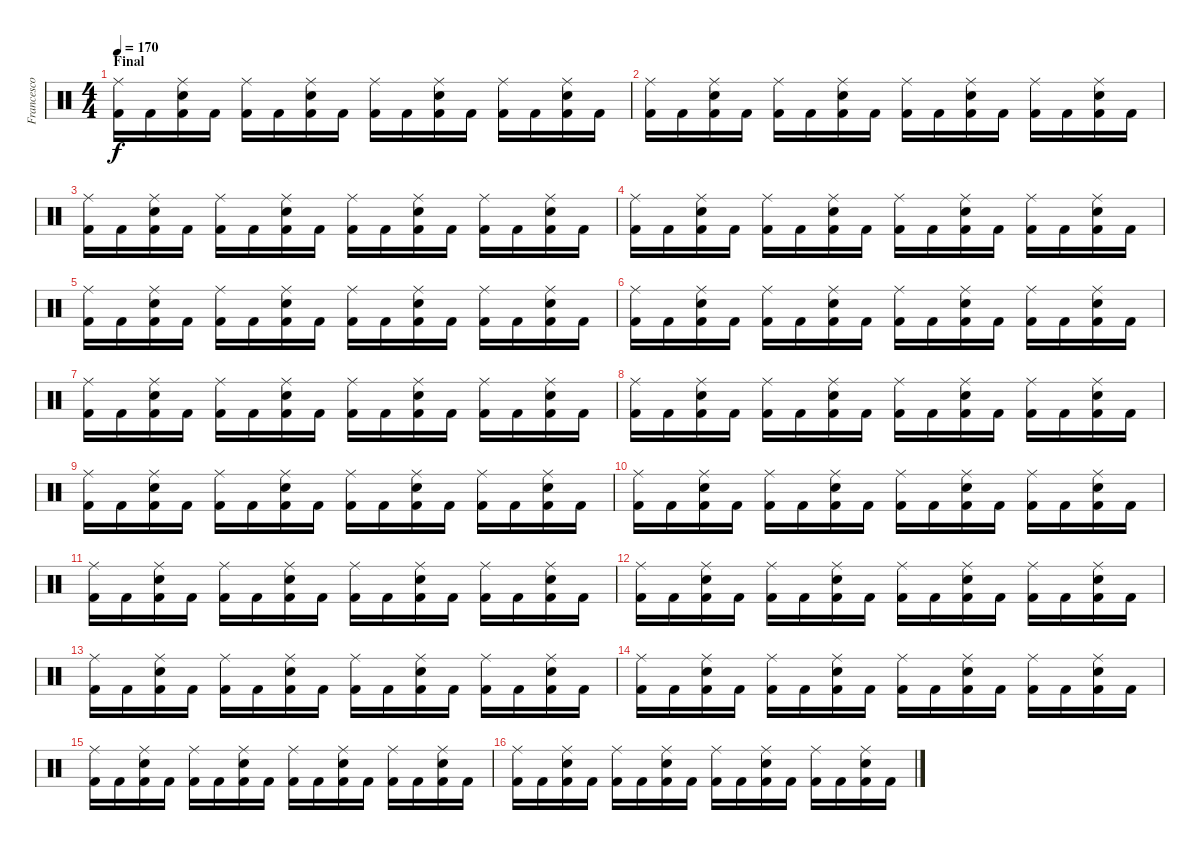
\track ("Francesco Tresa" "Francesco ") {instrument percussion}
\staff {score}
\articulation defaults
\ts (4 4)
\section ("" "Final")
\tempo 170
\clef neutral
\ks c
("Ride (middle)" "Kick (hit) 2").16{dy f} "Kick (hit) 2".16 ("Ride (middle)" "Kick (hit) 2" "Electric Snare (hit)").16 "Kick (hit) 2".16 ("Ride (middle)" "Kick (hit) 2").16 "Kick (hit) 2".16 ("Ride (middle)" "Kick (hit) 2" "Electric Snare (hit)").16 "Kick (hit) 2".16 ("Ride (middle)" "Kick (hit) 2").16 "Kick (hit) 2".16 ("Ride (middle)" "Kick (hit) 2" "Electric Snare (hit)").16 "Kick (hit) 2".16 ("Ride (middle)" "Kick (hit) 2").16 "Kick (hit) 2".16 ("Ride (middle)" "Kick (hit) 2" "Electric Snare (hit)").16 "Kick (hit) 2".16 |
("Ride (middle)" "Kick (hit) 2").16 "Kick (hit) 2".16 ("Ride (middle)" "Kick (hit) 2" "Electric Snare (hit)").16 "Kick (hit) 2".16 ("Ride (middle)" "Kick (hit) 2").16 "Kick (hit) 2".16 ("Ride (middle)" "Kick (hit) 2" "Electric Snare (hit)").16 "Kick (hit) 2".16 ("Ride (middle)" "Kick (hit) 2").16 "Kick (hit) 2".16 ("Ride (middle)" "Kick (hit) 2" "Electric Snare (hit)").16 "Kick (hit) 2".16 ("Ride (middle)" "Kick (hit) 2").16 "Kick (hit) 2".16 ("Ride (middle)" "Kick (hit) 2" "Electric Snare (hit)").16 "Kick (hit) 2".16 |
("Ride (middle)" "Kick (hit) 2").16 "Kick (hit) 2".16 ("Ride (middle)" "Kick (hit) 2" "Electric Snare (hit)").16 "Kick (hit) 2".16 ("Ride (middle)" "Kick (hit) 2").16 "Kick (hit) 2".16 ("Ride (middle)" "Kick (hit) 2" "Electric Snare (hit)").16 "Kick (hit) 2".16 ("Ride (middle)" "Kick (hit) 2").16 "Kick (hit) 2".16 ("Ride (middle)" "Kick (hit) 2" "Electric Snare (hit)").16 "Kick (hit) 2".16 ("Ride (middle)" "Kick (hit) 2").16 "Kick (hit) 2".16 ("Ride (middle)" "Kick (hit) 2" "Electric Snare (hit)").16 "Kick (hit) 2".16 |
("Ride (middle)" "Kick (hit) 2").16 "Kick (hit) 2".16 ("Ride (middle)" "Kick (hit) 2" "Electric Snare (hit)").16 "Kick (hit) 2".16 ("Ride (middle)" "Kick (hit) 2").16 "Kick (hit) 2".16 ("Ride (middle)" "Kick (hit) 2" "Electric Snare (hit)").16 "Kick (hit) 2".16 ("Ride (middle)" "Kick (hit) 2").16 "Kick (hit) 2".16 ("Ride (middle)" "Kick (hit) 2" "Electric Snare (hit)").16 "Kick (hit) 2".16 ("Ride (middle)" "Kick (hit) 2").16 "Kick (hit) 2".16 ("Ride (middle)" "Kick (hit) 2" "Electric Snare (hit)").16 "Kick (hit) 2".16 |
("Ride (middle)" "Kick (hit) 2").16 "Kick (hit) 2".16 ("Ride (middle)" "Kick (hit) 2" "Electric Snare (hit)").16 "Kick (hit) 2".16 ("Ride (middle)" "Kick (hit) 2").16 "Kick (hit) 2".16 ("Ride (middle)" "Kick (hit) 2" "Electric Snare (hit)").16 "Kick (hit) 2".16 ("Ride (middle)" "Kick (hit) 2").16 "Kick (hit) 2".16 ("Ride (middle)" "Kick (hit) 2" "Electric Snare (hit)").16 "Kick (hit) 2".16 ("Ride (middle)" "Kick (hit) 2").16 "Kick (hit) 2".16 ("Ride (middle)" "Kick (hit) 2" "Electric Snare (hit)").16 "Kick (hit) 2".16 |
("Ride (middle)" "Kick (hit) 2").16 "Kick (hit) 2".16 ("Ride (middle)" "Kick (hit) 2" "Electric Snare (hit)").16 "Kick (hit) 2".16 ("Ride (middle)" "Kick (hit) 2").16 "Kick (hit) 2".16 ("Ride (middle)" "Kick (hit) 2" "Electric Snare (hit)").16 "Kick (hit) 2".16 ("Ride (middle)" "Kick (hit) 2").16 "Kick (hit) 2".16 ("Ride (middle)" "Kick (hit) 2" "Electric Snare (hit)").16 "Kick (hit) 2".16 ("Ride (middle)" "Kick (hit) 2").16 "Kick (hit) 2".16 ("Ride (middle)" "Kick (hit) 2" "Electric Snare (hit)").16 "Kick (hit) 2".16 |
("Ride (middle)" "Kick (hit) 2").16 "Kick (hit) 2".16 ("Ride (middle)" "Kick (hit) 2" "Electric Snare (hit)").16 "Kick (hit) 2".16 ("Ride (middle)" "Kick (hit) 2").16 "Kick (hit) 2".16 ("Ride (middle)" "Kick (hit) 2" "Electric Snare (hit)").16 "Kick (hit) 2".16 ("Ride (middle)" "Kick (hit) 2").16 "Kick (hit) 2".16 ("Ride (middle)" "Kick (hit) 2" "Electric Snare (hit)").16 "Kick (hit) 2".16 ("Ride (middle)" "Kick (hit) 2").16 "Kick (hit) 2".16 ("Ride (middle)" "Kick (hit) 2" "Electric Snare (hit)").16 "Kick (hit) 2".16 |
("Ride (middle)" "Kick (hit) 2").16 "Kick (hit) 2".16 ("Ride (middle)" "Kick (hit) 2" "Electric Snare (hit)").16 "Kick (hit) 2".16 ("Ride (middle)" "Kick (hit) 2").16 "Kick (hit) 2".16 ("Ride (middle)" "Kick (hit) 2" "Electric Snare (hit)").16 "Kick (hit) 2".16 ("Ride (middle)" "Kick (hit) 2").16 "Kick (hit) 2".16 ("Ride (middle)" "Kick (hit) 2" "Electric Snare (hit)").16 "Kick (hit) 2".16 ("Ride (middle)" "Kick (hit) 2").16 "Kick (hit) 2".16 ("Ride (middle)" "Kick (hit) 2" "Electric Snare (hit)").16 "Kick (hit) 2".16 |
("Ride (middle)" "Kick (hit) 2").16 "Kick (hit) 2".16 ("Ride (middle)" "Kick (hit) 2" "Electric Snare (hit)").16 "Kick (hit) 2".16 ("Ride (middle)" "Kick (hit) 2").16 "Kick (hit) 2".16 ("Ride (middle)" "Kick (hit) 2" "Electric Snare (hit)").16 "Kick (hit) 2".16 ("Ride (middle)" "Kick (hit) 2").16 "Kick (hit) 2".16 ("Ride (middle)" "Kick (hit) 2" "Electric Snare (hit)").16 "Kick (hit) 2".16 ("Ride (middle)" "Kick (hit) 2").16 "Kick (hit) 2".16 ("Ride (middle)" "Kick (hit) 2" "Electric Snare (hit)").16 "Kick (hit) 2".16 |
("Ride (middle)" "Kick (hit) 2").16 "Kick (hit) 2".16 ("Ride (middle)" "Kick (hit) 2" "Electric Snare (hit)").16 "Kick (hit) 2".16 ("Ride (middle)" "Kick (hit) 2").16 "Kick (hit) 2".16 ("Ride (middle)" "Kick (hit) 2" "Electric Snare (hit)").16 "Kick (hit) 2".16 ("Ride (middle)" "Kick (hit) 2").16 "Kick (hit) 2".16 ("Ride (middle)" "Kick (hit) 2" "Electric Snare (hit)").16 "Kick (hit) 2".16 ("Ride (middle)" "Kick (hit) 2").16 "Kick (hit) 2".16 ("Ride (middle)" "Kick (hit) 2" "Electric Snare (hit)").16 "Kick (hit) 2".16 |
("Ride (middle)" "Kick (hit) 2").16 "Kick (hit) 2".16 ("Ride (middle)" "Kick (hit) 2" "Electric Snare (hit)").16 "Kick (hit) 2".16 ("Ride (middle)" "Kick (hit) 2").16 "Kick (hit) 2".16 ("Ride (middle)" "Kick (hit) 2" "Electric Snare (hit)").16 "Kick (hit) 2".16 ("Ride (middle)" "Kick (hit) 2").16 "Kick (hit) 2".16 ("Ride (middle)" "Kick (hit) 2" "Electric Snare (hit)").16 "Kick (hit) 2".16 ("Ride (middle)" "Kick (hit) 2").16 "Kick (hit) 2".16 ("Ride (middle)" "Kick (hit) 2" "Electric Snare (hit)").16 "Kick (hit) 2".16 |
("Ride (middle)" "Kick (hit) 2").16 "Kick (hit) 2".16 ("Ride (middle)" "Kick (hit) 2" "Electric Snare (hit)").16 "Kick (hit) 2".16 ("Ride (middle)" "Kick (hit) 2").16 "Kick (hit) 2".16 ("Ride (middle)" "Kick (hit) 2" "Electric Snare (hit)").16 "Kick (hit) 2".16 ("Ride (middle)" "Kick (hit) 2").16 "Kick (hit) 2".16 ("Ride (middle)" "Kick (hit) 2" "Electric Snare (hit)").16 "Kick (hit) 2".16 ("Ride (middle)" "Kick (hit) 2").16 "Kick (hit) 2".16 ("Ride (middle)" "Kick (hit) 2" "Electric Snare (hit)").16 "Kick (hit) 2".16 |
("Ride (middle)" "Kick (hit) 2").16 "Kick (hit) 2".16 ("Ride (middle)" "Kick (hit) 2" "Electric Snare (hit)").16 "Kick (hit) 2".16 ("Ride (middle)" "Kick (hit) 2").16 "Kick (hit) 2".16 ("Ride (middle)" "Kick (hit) 2" "Electric Snare (hit)").16 "Kick (hit) 2".16 ("Ride (middle)" "Kick (hit) 2").16 "Kick (hit) 2".16 ("Ride (middle)" "Kick (hit) 2" "Electric Snare (hit)").16 "Kick (hit) 2".16 ("Ride (middle)" "Kick (hit) 2").16 "Kick (hit) 2".16 ("Ride (middle)" "Kick (hit) 2" "Electric Snare (hit)").16 "Kick (hit) 2".16 |
("Ride (middle)" "Kick (hit) 2").16 "Kick (hit) 2".16 ("Ride (middle)" "Kick (hit) 2" "Electric Snare (hit)").16 "Kick (hit) 2".16 ("Ride (middle)" "Kick (hit) 2").16 "Kick (hit) 2".16 ("Ride (middle)" "Kick (hit) 2" "Electric Snare (hit)").16 "Kick (hit) 2".16 ("Ride (middle)" "Kick (hit) 2").16 "Kick (hit) 2".16 ("Ride (middle)" "Kick (hit) 2" "Electric Snare (hit)").16 "Kick (hit) 2".16 ("Ride (middle)" "Kick (hit) 2").16 "Kick (hit) 2".16 ("Ride (middle)" "Kick (hit) 2" "Electric Snare (hit)").16 "Kick (hit) 2".16 |
("Ride (middle)" "Kick (hit) 2").16 "Kick (hit) 2".16 ("Ride (middle)" "Kick (hit) 2" "Electric Snare (hit)").16 "Kick (hit) 2".16 ("Ride (middle)" "Kick (hit) 2").16 "Kick (hit) 2".16 ("Ride (middle)" "Kick (hit) 2" "Electric Snare (hit)").16 "Kick (hit) 2".16 ("Ride (middle)" "Kick (hit) 2").16 "Kick (hit) 2".16 ("Ride (middle)" "Kick (hit) 2" "Electric Snare (hit)").16 "Kick (hit) 2".16 ("Ride (middle)" "Kick (hit) 2").16 "Kick (hit) 2".16 ("Ride (middle)" "Kick (hit) 2" "Electric Snare (hit)").16 "Kick (hit) 2".16 |
("Ride (middle)" "Kick (hit) 2").16 "Kick (hit) 2".16 ("Ride (middle)" "Kick (hit) 2" "Electric Snare (hit)").16 "Kick (hit) 2".16 ("Ride (middle)" "Kick (hit) 2").16 "Kick (hit) 2".16 ("Ride (middle)" "Kick (hit) 2" "Electric Snare (hit)").16 "Kick (hit) 2".16 ("Ride (middle)" "Kick (hit) 2").16 "Kick (hit) 2".16 ("Ride (middle)" "Kick (hit) 2" "Electric Snare (hit)").16 "Kick (hit) 2".16 ("Ride (middle)" "Kick (hit) 2").16 "Kick (hit) 2".16 ("Ride (middle)" "Kick (hit) 2" "Electric Snare (hit)").16 "Kick (hit) 2".16
